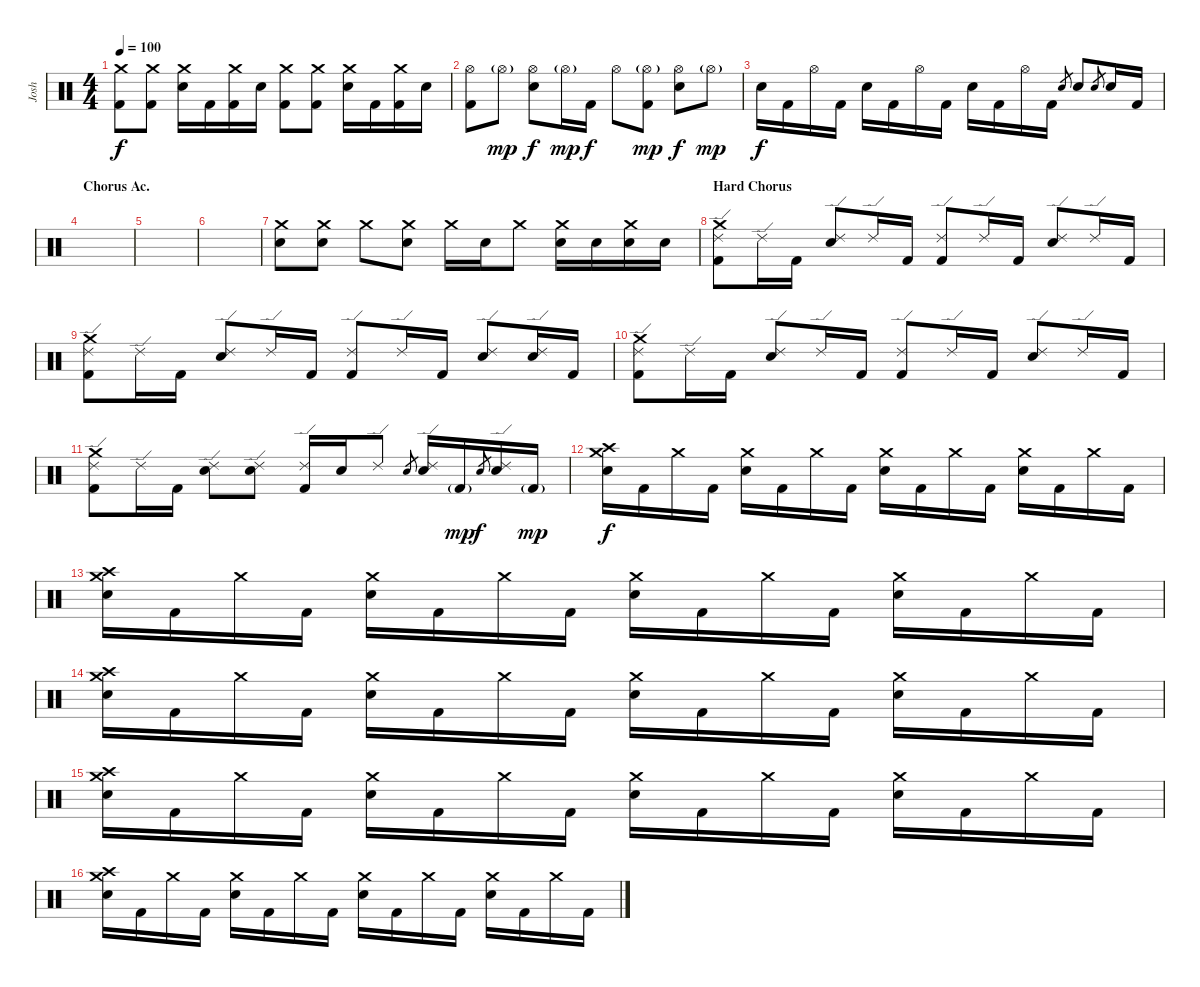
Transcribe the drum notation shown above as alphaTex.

\track ("Josh" "Josh") {instrument percussion}
\staff {score}
\articulation defaults
\ts (4 4)
\tempo 100
\clef neutral
\ks c
("Crash medium (hit)" "Kick (hit) 2").8{dy f} ("Crash medium (hit)" "Kick (hit) 2").8 ("Crash medium (hit)" "Electric Snare (hit)").16 "Kick (hit) 2".16 ("Crash medium (hit)" "Kick (hit) 2").16 "Electric Snare (hit)".16 ("Crash medium (hit)" "Kick (hit) 2").8 ("Crash medium (hit)" "Kick (hit) 2").8 ("Crash medium (hit)" "Electric Snare (hit)").16 "Kick (hit) 2".16 ("Crash medium (hit)" "Kick (hit) 2").16 "Electric Snare (hit)".16 |
("Hi-Hat (open)" "Kick (hit) 2").8 "Hi-Hat (open)"{g}.8{dy mp} ("Hi-Hat (open)" "Electric Snare (hit)").8{dy f} "Hi-Hat (open)"{g}.16{dy mp} "Kick (hit) 2".16{dy f} "Hi-Hat (open)".8 ("Hi-Hat (open)"{g} "Kick (hit) 2").8{dy mp} ("Hi-Hat (open)" "Electric Snare (hit)").8{dy f} "Hi-Hat (open)"{g}.8{dy mp} |
"Electric Snare (hit)".16{dy f} "Kick (hit) 2".16 "Hi-Hat (open)".16 "Kick (hit) 2".16 "Electric Snare (hit)".16 "Kick (hit) 2".16 "Hi-Hat (open)".16 "Kick (hit) 2".16 "Electric Snare (hit)".16 "Kick (hit) 2".16 "Hi-Hat (open)".16 "Kick (hit) 2".16 "Electric Snare (hit)".8{gr} "Electric Snare (hit)".8 "Electric Snare (hit)".8{gr} "Electric Snare (hit)".16 "Kick (hit) 2".16 |
\section ("" "Chorus Ac.")
|
|
|
("Crash medium (hit)" "Electric Snare (hit)").8 ("Crash medium (hit)" "Electric Snare (hit)").8 "Crash medium (hit)".8 ("Crash medium (hit)" "Electric Snare (hit)").8 "Crash medium (hit)".16 "Electric Snare (hit)".16 "Crash medium (hit)".8 ("Crash medium (hit)" "Electric Snare (hit)").16 "Electric Snare (hit)".16 ("Crash medium (hit)" "Electric Snare (hit)").16 "Electric Snare (hit)".16 |
\section ("" "Hard Chorus")
("Crash medium (hit)" "Ride (edge) 2" "Kick (hit) 2").8 "Ride (edge) 2".16 "Kick (hit) 2".16 ("Ride (edge) 2" "Electric Snare (hit)").8 "Ride (edge) 2".16 "Kick (hit) 2".16 ("Ride (edge) 2" "Kick (hit) 2").8 "Ride (edge) 2".16 "Kick (hit) 2".16 ("Ride (edge) 2" "Electric Snare (hit)").8 "Ride (edge) 2".16 "Kick (hit) 2".16 |
("Crash medium (hit)" "Ride (edge) 2" "Kick (hit) 2").8 "Ride (edge) 2".16 "Kick (hit) 2".16 ("Ride (edge) 2" "Electric Snare (hit)").8 "Ride (edge) 2".16 "Kick (hit) 2".16 ("Ride (edge) 2" "Kick (hit) 2").8 "Ride (edge) 2".16 "Kick (hit) 2".16 ("Ride (edge) 2" "Electric Snare (hit)").8 ("Ride (edge) 2" "Electric Snare (hit)").16 "Kick (hit) 2".16 |
("Crash medium (hit)" "Ride (edge) 2" "Kick (hit) 2").8 "Ride (edge) 2".16 "Kick (hit) 2".16 ("Ride (edge) 2" "Electric Snare (hit)").8 "Ride (edge) 2".16 "Kick (hit) 2".16 ("Ride (edge) 2" "Kick (hit) 2").8 "Ride (edge) 2".16 "Kick (hit) 2".16 ("Ride (edge) 2" "Electric Snare (hit)").8 "Ride (edge) 2".16 "Kick (hit) 2".16 |
("Crash medium (hit)" "Ride (edge) 2" "Kick (hit) 2").8 "Ride (edge) 2".16 "Kick (hit) 2".16 ("Ride (edge) 2" "Electric Snare (hit)").8 ("Ride (edge) 2" "Electric Snare (hit)").8 ("Ride (edge) 2" "Kick (hit) 2").16 "Electric Snare (hit)".16 "Ride (edge) 2".8 "Electric Snare (hit)".8{gr} ("Ride (edge) 2" "Electric Snare (hit)").16 "Kick (hit) 2"{g}.16{dy mp} "Electric Snare (hit)".8{gr dy f} ("Ride (edge) 2" "Electric Snare (hit)").16 "Kick (hit) 2"{g}.16{dy mp} |
("Crash high (hit)" "Crash medium (hit)" "Electric Snare (hit)").16{dy f} "Kick (hit) 2".16 "Crash medium (hit)".16 "Kick (hit) 2".16 ("Crash medium (hit)" "Electric Snare (hit)").16 "Kick (hit) 2".16 "Crash medium (hit)".16 "Kick (hit) 2".16 ("Crash medium (hit)" "Electric Snare (hit)").16 "Kick (hit) 2".16 "Crash medium (hit)".16 "Kick (hit) 2".16 ("Crash medium (hit)" "Electric Snare (hit)").16 "Kick (hit) 2".16 "Crash medium (hit)".16 "Kick (hit) 2".16 |
("Crash high (hit)" "Crash medium (hit)" "Electric Snare (hit)").16 "Kick (hit) 2".16 "Crash medium (hit)".16 "Kick (hit) 2".16 ("Crash medium (hit)" "Electric Snare (hit)").16 "Kick (hit) 2".16 "Crash medium (hit)".16 "Kick (hit) 2".16 ("Crash medium (hit)" "Electric Snare (hit)").16 "Kick (hit) 2".16 "Crash medium (hit)".16 "Kick (hit) 2".16 ("Crash medium (hit)" "Electric Snare (hit)").16 "Kick (hit) 2".16 "Crash medium (hit)".16 "Kick (hit) 2".16 |
("Crash high (hit)" "Crash medium (hit)" "Electric Snare (hit)").16 "Kick (hit) 2".16 "Crash medium (hit)".16 "Kick (hit) 2".16 ("Crash medium (hit)" "Electric Snare (hit)").16 "Kick (hit) 2".16 "Crash medium (hit)".16 "Kick (hit) 2".16 ("Crash medium (hit)" "Electric Snare (hit)").16 "Kick (hit) 2".16 "Crash medium (hit)".16 "Kick (hit) 2".16 ("Crash medium (hit)" "Electric Snare (hit)").16 "Kick (hit) 2".16 "Crash medium (hit)".16 "Kick (hit) 2".16 |
("Crash high (hit)" "Crash medium (hit)" "Electric Snare (hit)").16 "Kick (hit) 2".16 "Crash medium (hit)".16 "Kick (hit) 2".16 ("Crash medium (hit)" "Electric Snare (hit)").16 "Kick (hit) 2".16 "Crash medium (hit)".16 "Kick (hit) 2".16 ("Crash medium (hit)" "Electric Snare (hit)").16 "Kick (hit) 2".16 "Crash medium (hit)".16 "Kick (hit) 2".16 ("Crash medium (hit)" "Electric Snare (hit)").16 "Kick (hit) 2".16 "Crash medium (hit)".16 "Kick (hit) 2".16 |
("Crash high (hit)" "Crash medium (hit)" "Electric Snare (hit)").16 "Kick (hit) 2".16 "Crash medium (hit)".16 "Kick (hit) 2".16 ("Crash medium (hit)" "Electric Snare (hit)").16 "Kick (hit) 2".16 "Crash medium (hit)".16 "Kick (hit) 2".16 ("Crash medium (hit)" "Electric Snare (hit)").16 "Kick (hit) 2".16 "Crash medium (hit)".16 "Kick (hit) 2".16 ("Crash medium (hit)" "Electric Snare (hit)").16 "Kick (hit) 2".16 "Crash medium (hit)".16 "Kick (hit) 2".16
